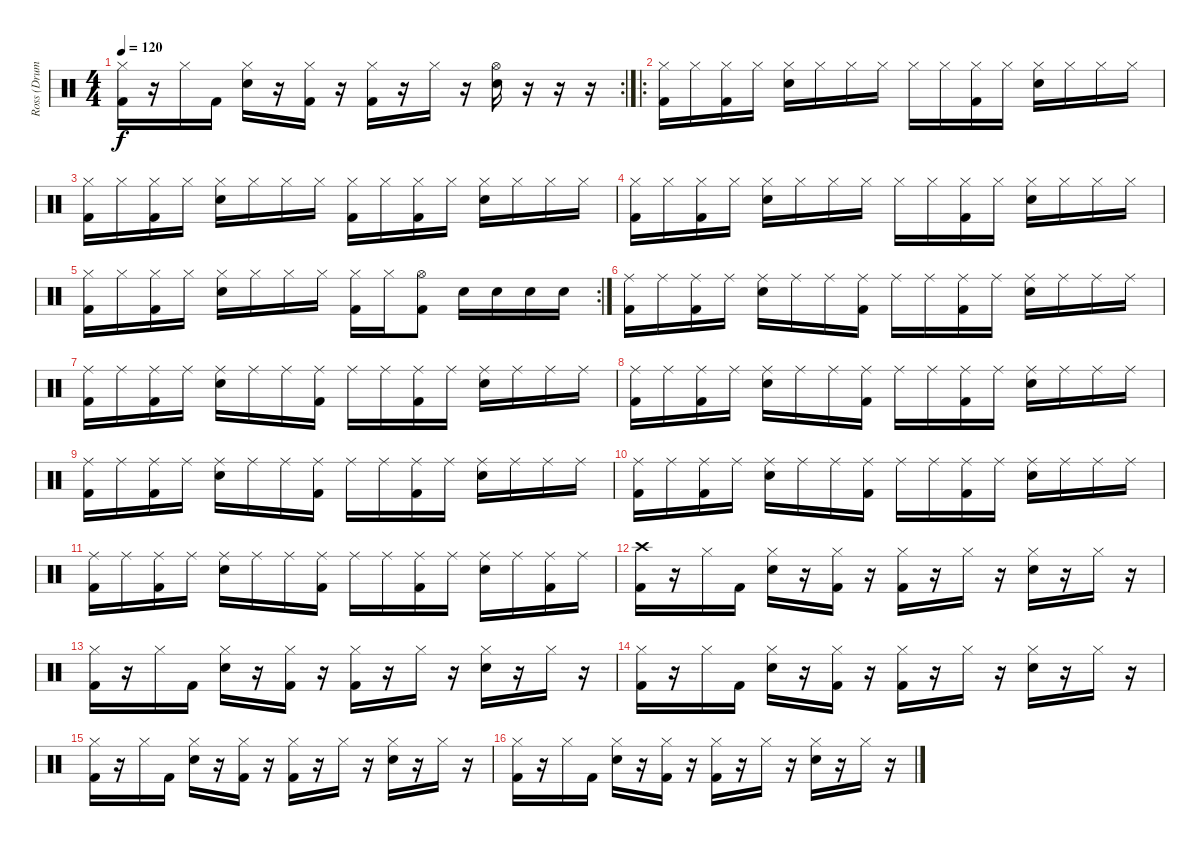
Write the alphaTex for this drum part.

\track ("Ross (Drums)" "Ross (Drum") {instrument percussion}
\staff {score}
\articulation defaults
\rc 2
\ts (4 4)
\tempo 120
\clef neutral
\ks c
("Hi-Hat (closed)" "Kick (hit) 2").16{dy f} r.16 "Hi-Hat (closed)".16 "Kick (hit) 2".16 ("Hi-Hat (closed)" "Electric Snare (hit)").16 r.16 ("Hi-Hat (closed)" "Kick (hit) 2").16 r.16 ("Hi-Hat (closed)" "Kick (hit) 2").16 r.16 "Hi-Hat (closed)".16 r.16 ("Hi-Hat (open)" "Electric Snare (hit)").16 r.16 r.16 r.16 |
\ro
("Hi-Hat (closed)" "Kick (hit) 2").16 "Hi-Hat (closed)".16 ("Hi-Hat (closed)" "Kick (hit) 2").16 "Hi-Hat (closed)".16 ("Hi-Hat (closed)" "Electric Snare (hit)").16 "Hi-Hat (closed)".16 "Hi-Hat (closed)".16 "Hi-Hat (closed)".16 "Hi-Hat (closed)".16 "Hi-Hat (closed)".16 ("Hi-Hat (closed)" "Kick (hit) 2").16 "Hi-Hat (closed)".16 ("Hi-Hat (closed)" "Electric Snare (hit)").16 "Hi-Hat (closed)".16 "Hi-Hat (closed)".16 "Hi-Hat (closed)".16 |
("Hi-Hat (closed)" "Kick (hit) 2").16 "Hi-Hat (closed)".16 ("Hi-Hat (closed)" "Kick (hit) 2").16 "Hi-Hat (closed)".16 ("Hi-Hat (closed)" "Electric Snare (hit)").16 "Hi-Hat (closed)".16 "Hi-Hat (closed)".16 "Hi-Hat (closed)".16 ("Hi-Hat (closed)" "Kick (hit) 2").16 "Hi-Hat (closed)".16 ("Hi-Hat (closed)" "Kick (hit) 2").16 "Hi-Hat (closed)".16 ("Hi-Hat (closed)" "Electric Snare (hit)").16 "Hi-Hat (closed)".16 "Hi-Hat (closed)".16 "Hi-Hat (closed)".16 |
("Hi-Hat (closed)" "Kick (hit) 2").16 "Hi-Hat (closed)".16 ("Hi-Hat (closed)" "Kick (hit) 2").16 "Hi-Hat (closed)".16 ("Hi-Hat (closed)" "Electric Snare (hit)").16 "Hi-Hat (closed)".16 "Hi-Hat (closed)".16 "Hi-Hat (closed)".16 "Hi-Hat (closed)".16 "Hi-Hat (closed)".16 ("Hi-Hat (closed)" "Kick (hit) 2").16 "Hi-Hat (closed)".16 ("Hi-Hat (closed)" "Electric Snare (hit)").16 "Hi-Hat (closed)".16 "Hi-Hat (closed)".16 "Hi-Hat (closed)".16 |
\rc 2
("Hi-Hat (closed)" "Kick (hit) 2").16 "Hi-Hat (closed)".16 ("Hi-Hat (closed)" "Kick (hit) 2").16 "Hi-Hat (closed)".16 ("Hi-Hat (closed)" "Electric Snare (hit)").16 "Hi-Hat (closed)".16 "Hi-Hat (closed)".16 "Hi-Hat (closed)".16 ("Hi-Hat (closed)" "Kick (hit) 2").16 "Hi-Hat (closed)".16 ("Hi-Hat (open)" "Kick (hit) 2").8 "Electric Snare (hit)".16 "Electric Snare (hit)".16 "Electric Snare (hit)".16 "Electric Snare (hit)".16 |
("Ride (middle)" "Kick (hit) 2").16 "Ride (middle)".16 ("Ride (middle)" "Kick (hit) 2").16 "Ride (middle)".16 ("Ride (middle)" "Electric Snare (hit)").16 "Ride (middle)".16 "Ride (middle)".16 ("Ride (middle)" "Kick (hit) 2").16 "Ride (middle)".16 "Ride (middle)".16 ("Ride (middle)" "Kick (hit) 2").16 "Ride (middle)".16 ("Ride (middle)" "Electric Snare (hit)").16 "Ride (middle)".16 "Ride (middle)".16 "Ride (middle)".16 |
("Ride (middle)" "Kick (hit) 2").16 "Ride (middle)".16 ("Ride (middle)" "Kick (hit) 2").16 "Ride (middle)".16 ("Ride (middle)" "Electric Snare (hit)").16 "Ride (middle)".16 "Ride (middle)".16 ("Ride (middle)" "Kick (hit) 2").16 "Ride (middle)".16 "Ride (middle)".16 ("Ride (middle)" "Kick (hit) 2").16 "Ride (middle)".16 ("Ride (middle)" "Electric Snare (hit)").16 "Ride (middle)".16 "Ride (middle)".16 "Ride (middle)".16 |
("Ride (middle)" "Kick (hit) 2").16 "Ride (middle)".16 ("Ride (middle)" "Kick (hit) 2").16 "Ride (middle)".16 ("Ride (middle)" "Electric Snare (hit)").16 "Ride (middle)".16 "Ride (middle)".16 ("Ride (middle)" "Kick (hit) 2").16 "Ride (middle)".16 "Ride (middle)".16 ("Ride (middle)" "Kick (hit) 2").16 "Ride (middle)".16 ("Ride (middle)" "Electric Snare (hit)").16 "Ride (middle)".16 "Ride (middle)".16 "Ride (middle)".16 |
("Ride (middle)" "Kick (hit) 2").16 "Ride (middle)".16 ("Ride (middle)" "Kick (hit) 2").16 "Ride (middle)".16 ("Ride (middle)" "Electric Snare (hit)").16 "Ride (middle)".16 "Ride (middle)".16 ("Ride (middle)" "Kick (hit) 2").16 "Ride (middle)".16 "Ride (middle)".16 ("Ride (middle)" "Kick (hit) 2").16 "Ride (middle)".16 ("Ride (middle)" "Electric Snare (hit)").16 "Ride (middle)".16 "Ride (middle)".16 "Ride (middle)".16 |
("Ride (middle)" "Kick (hit) 2").16 "Ride (middle)".16 ("Ride (middle)" "Kick (hit) 2").16 "Ride (middle)".16 ("Ride (middle)" "Electric Snare (hit)").16 "Ride (middle)".16 "Ride (middle)".16 ("Ride (middle)" "Kick (hit) 2").16 "Ride (middle)".16 "Ride (middle)".16 ("Ride (middle)" "Kick (hit) 2").16 "Ride (middle)".16 ("Ride (middle)" "Electric Snare (hit)").16 "Ride (middle)".16 "Ride (middle)".16 "Ride (middle)".16 |
("Ride (middle)" "Kick (hit) 2").16 "Ride (middle)".16 ("Ride (middle)" "Kick (hit) 2").16 "Ride (middle)".16 ("Ride (middle)" "Electric Snare (hit)").16 "Ride (middle)".16 "Ride (middle)".16 ("Ride (middle)" "Kick (hit) 2").16 "Ride (middle)".16 "Ride (middle)".16 ("Ride (middle)" "Kick (hit) 2").16 "Ride (middle)".16 ("Ride (middle)" "Electric Snare (hit)").16 "Ride (middle)".16 ("Ride (middle)" "Kick (hit) 2").16 "Ride (middle)".16 |
("Crash high (hit)" "Kick (hit) 2").16 r.16 "Hi-Hat (closed)".16 "Kick (hit) 2".16 ("Hi-Hat (closed)" "Electric Snare (hit)").16 r.16 ("Hi-Hat (closed)" "Kick (hit) 2").16 r.16 ("Hi-Hat (closed)" "Kick (hit) 2").16 r.16 "Hi-Hat (closed)".16 r.16 ("Hi-Hat (closed)" "Electric Snare (hit)").16 r.16 "Hi-Hat (closed)".16 r.16 |
("Hi-Hat (closed)" "Kick (hit) 2").16 r.16 "Hi-Hat (closed)".16 "Kick (hit) 2".16 ("Hi-Hat (closed)" "Electric Snare (hit)").16 r.16 ("Hi-Hat (closed)" "Kick (hit) 2").16 r.16 ("Hi-Hat (closed)" "Kick (hit) 2").16 r.16 "Hi-Hat (closed)".16 r.16 ("Hi-Hat (closed)" "Electric Snare (hit)").16 r.16 "Hi-Hat (closed)".16 r.16 |
("Hi-Hat (closed)" "Kick (hit) 2").16 r.16 "Hi-Hat (closed)".16 "Kick (hit) 2".16 ("Hi-Hat (closed)" "Electric Snare (hit)").16 r.16 ("Hi-Hat (closed)" "Kick (hit) 2").16 r.16 ("Hi-Hat (closed)" "Kick (hit) 2").16 r.16 "Hi-Hat (closed)".16 r.16 ("Hi-Hat (closed)" "Electric Snare (hit)").16 r.16 "Hi-Hat (closed)".16 r.16 |
("Hi-Hat (closed)" "Kick (hit) 2").16 r.16 "Hi-Hat (closed)".16 "Kick (hit) 2".16 ("Hi-Hat (closed)" "Electric Snare (hit)").16 r.16 ("Hi-Hat (closed)" "Kick (hit) 2").16 r.16 ("Hi-Hat (closed)" "Kick (hit) 2").16 r.16 "Hi-Hat (closed)".16 r.16 ("Hi-Hat (closed)" "Electric Snare (hit)").16 r.16 "Hi-Hat (closed)".16 r.16 |
("Hi-Hat (closed)" "Kick (hit) 2").16 r.16 "Hi-Hat (closed)".16 "Kick (hit) 2".16 ("Hi-Hat (closed)" "Electric Snare (hit)").16 r.16 ("Hi-Hat (closed)" "Kick (hit) 2").16 r.16 ("Hi-Hat (closed)" "Kick (hit) 2").16 r.16 "Hi-Hat (closed)".16 r.16 ("Hi-Hat (closed)" "Electric Snare (hit)").16 r.16 "Hi-Hat (closed)".16 r.16
